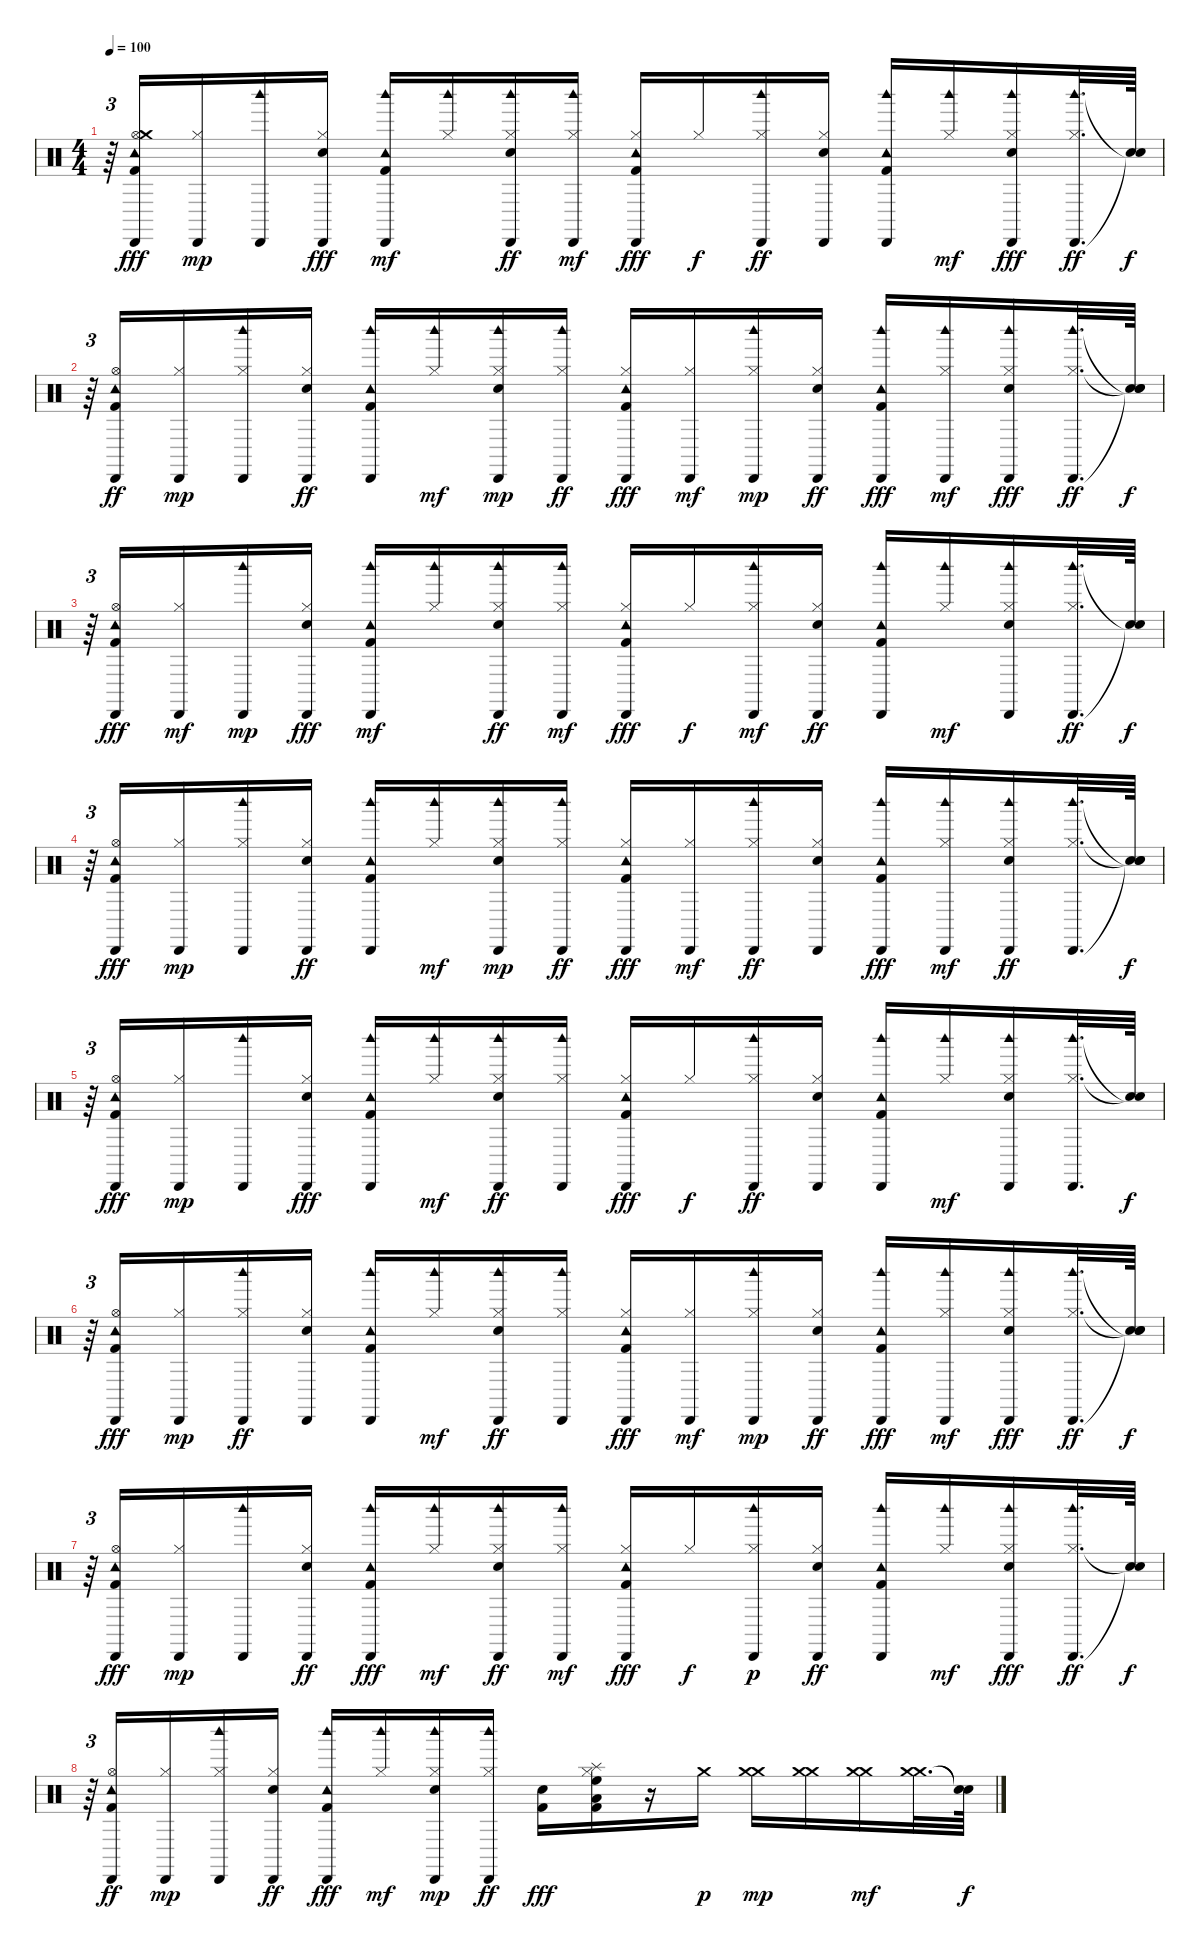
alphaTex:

\track "" {instrument percussion}
\staff {score}
\articulation defaults
\ts (4 4)
\tempo 100
\clef neutral
\ks c
r.64{tu (3 2) dy f} ("Tambourine (hit)" "Cabasa (hit)" "Hi-Hat (open)" "Kick (hit) 2" "Crash medium (hit)").16{dy fff} ("Cabasa (hit)" "Hi-Hat (closed)").16{dy mp} ("Woodblock high (hit)" "Cabasa (hit)").16 ("Hi-Hat (closed)" "Cabasa (hit)" "Electric Snare (hit)").16{dy fff} ("Tambourine (hit)" "Kick (hit) 2" "Woodblock high (hit)" "Cabasa (hit)").16{dy mf} ("Hi-Hat (closed)" "Woodblock high (hit)").16 ("Electric Snare (hit)" "Hi-Hat (closed)" "Cabasa (hit)" "Woodblock high (hit)").16{dy ff} ("Woodblock high (hit)" "Hi-Hat (closed)" "Cabasa (hit)").16{dy mf} ("Kick (hit) 2" "Tambourine (hit)" "Hi-Hat (closed)" "Cabasa (hit)").16{dy fff} "Hi-Hat (closed)".16{dy f} ("Hi-Hat (closed)" "Cabasa (hit)" "Woodblock high (hit)").16{dy ff} ("Hi-Hat (closed)" "Electric Snare (hit)" "Cabasa (hit)").16 ("Cabasa (hit)" "Tambourine (hit)" "Kick (hit) 2" "Woodblock high (hit)").16 ("Woodblock high (hit)" "Hi-Hat (closed)").16{dy mf} ("Woodblock high (hit)" "Hi-Hat (closed)" "Cabasa (hit)" "Electric Snare (hit)").16{dy fff} ("Cabasa (hit)" "Woodblock high (hit)" "Hi-Hat (closed)").32{d dy ff} ("Snare (hit)"{t} "Snare (hit)"{t}).64{dy f} |
r.64{tu (3 2)} ("Kick (hit) 2" "Cabasa (hit)" "Tambourine (hit)" "Hi-Hat (open)").16{dy ff} ("Hi-Hat (closed)" "Cabasa (hit)").16{dy mp} ("Hi-Hat (closed)" "Woodblock high (hit)" "Cabasa (hit)").16 ("Electric Snare (hit)" "Cabasa (hit)" "Hi-Hat (closed)").16{dy ff} ("Woodblock high (hit)" "Tambourine (hit)" "Kick (hit) 2" "Cabasa (hit)").16 ("Woodblock high (hit)" "Hi-Hat (closed)").16{dy mf} ("Hi-Hat (closed)" "Woodblock high (hit)" "Electric Snare (hit)" "Cabasa (hit)").16{dy mp} ("Hi-Hat (closed)" "Woodblock high (hit)" "Cabasa (hit)").16{dy ff} ("Hi-Hat (closed)" "Kick (hit) 2" "Tambourine (hit)" "Cabasa (hit)").16{dy fff} ("Cabasa (hit)" "Hi-Hat (closed)").16{dy mf} ("Woodblock high (hit)" "Hi-Hat (closed)" "Cabasa (hit)").16{dy mp} ("Cabasa (hit)" "Electric Snare (hit)" "Hi-Hat (closed)").16{dy ff} ("Cabasa (hit)" "Kick (hit) 2" "Tambourine (hit)" "Woodblock high (hit)").16{dy fff} ("Hi-Hat (closed)" "Woodblock high (hit)" "Cabasa (hit)").16{dy mf} ("Woodblock high (hit)" "Cabasa (hit)" "Hi-Hat (closed)" "Electric Snare (hit)").16{dy fff} ("Hi-Hat (closed)" "Woodblock high (hit)" "Cabasa (hit)").32{d dy ff} ("Snare (hit)"{t} "Snare (hit)"{t} "Snare (hit)"{t}).64{dy f} |
r.64{tu (3 2)} ("Cabasa (hit)" "Hi-Hat (open)" "Kick (hit) 2" "Tambourine (hit)").16{dy fff} ("Hi-Hat (closed)" "Cabasa (hit)").16{dy mf} ("Woodblock high (hit)" "Cabasa (hit)").16{dy mp} ("Cabasa (hit)" "Hi-Hat (closed)" "Electric Snare (hit)").16{dy fff} ("Kick (hit) 2" "Tambourine (hit)" "Woodblock high (hit)" "Cabasa (hit)").16{dy mf} ("Hi-Hat (closed)" "Woodblock high (hit)").16 ("Woodblock high (hit)" "Cabasa (hit)" "Electric Snare (hit)" "Hi-Hat (closed)").16{dy ff} ("Woodblock high (hit)" "Hi-Hat (closed)" "Cabasa (hit)").16{dy mf} ("Cabasa (hit)" "Tambourine (hit)" "Kick (hit) 2" "Hi-Hat (closed)").16{dy fff} "Hi-Hat (closed)".16{dy f} ("Woodblock high (hit)" "Hi-Hat (closed)" "Cabasa (hit)").16{dy mf} ("Electric Snare (hit)" "Hi-Hat (closed)" "Cabasa (hit)").16{dy ff} ("Woodblock high (hit)" "Cabasa (hit)" "Kick (hit) 2" "Tambourine (hit)").16 ("Hi-Hat (closed)" "Woodblock high (hit)").16{dy mf} ("Woodblock high (hit)" "Hi-Hat (closed)" "Electric Snare (hit)" "Cabasa (hit)").16 ("Woodblock high (hit)" "Cabasa (hit)" "Hi-Hat (closed)").32{d dy ff} ("Snare (hit)"{t} "Snare (hit)"{t}).64{dy f} |
r.64{tu (3 2)} ("Cabasa (hit)" "Kick (hit) 2" "Hi-Hat (open)" "Tambourine (hit)").16{dy fff} ("Cabasa (hit)" "Hi-Hat (closed)").16{dy mp} ("Hi-Hat (closed)" "Woodblock high (hit)" "Cabasa (hit)").16 ("Cabasa (hit)" "Electric Snare (hit)" "Hi-Hat (closed)").16{dy ff} ("Woodblock high (hit)" "Tambourine (hit)" "Kick (hit) 2" "Cabasa (hit)").16 ("Woodblock high (hit)" "Hi-Hat (closed)").16{dy mf} ("Electric Snare (hit)" "Hi-Hat (closed)" "Cabasa (hit)" "Woodblock high (hit)").16{dy mp} ("Cabasa (hit)" "Hi-Hat (closed)" "Woodblock high (hit)").16{dy ff} ("Cabasa (hit)" "Tambourine (hit)" "Kick (hit) 2" "Hi-Hat (closed)").16{dy fff} ("Hi-Hat (closed)" "Cabasa (hit)").16{dy mf} ("Hi-Hat (closed)" "Cabasa (hit)" "Woodblock high (hit)").16{dy ff} ("Electric Snare (hit)" "Cabasa (hit)" "Hi-Hat (closed)").16 ("Tambourine (hit)" "Woodblock high (hit)" "Cabasa (hit)" "Kick (hit) 2").16{dy fff} ("Hi-Hat (closed)" "Woodblock high (hit)" "Cabasa (hit)").16{dy mf} ("Electric Snare (hit)" "Hi-Hat (closed)" "Cabasa (hit)" "Woodblock high (hit)").16{dy ff} ("Hi-Hat (closed)" "Cabasa (hit)" "Woodblock high (hit)").32{d} ("Snare (hit)"{t} "Snare (hit)"{t} "Snare (hit)"{t}).64{dy f} |
r.64{tu (3 2)} ("Cabasa (hit)" "Hi-Hat (open)" "Kick (hit) 2" "Tambourine (hit)").16{dy fff} ("Cabasa (hit)" "Hi-Hat (closed)").16{dy mp} ("Cabasa (hit)" "Woodblock high (hit)").16 ("Hi-Hat (closed)" "Cabasa (hit)" "Electric Snare (hit)").16{dy fff} ("Kick (hit) 2" "Woodblock high (hit)" "Cabasa (hit)" "Tambourine (hit)").16 ("Woodblock high (hit)" "Hi-Hat (closed)").16{dy mf} ("Electric Snare (hit)" "Hi-Hat (closed)" "Cabasa (hit)" "Woodblock high (hit)").16{dy ff} ("Hi-Hat (closed)" "Cabasa (hit)" "Woodblock high (hit)").16 ("Hi-Hat (closed)" "Tambourine (hit)" "Cabasa (hit)" "Kick (hit) 2").16{dy fff} "Hi-Hat (closed)".16{dy f} ("Hi-Hat (closed)" "Cabasa (hit)" "Woodblock high (hit)").16{dy ff} ("Electric Snare (hit)" "Hi-Hat (closed)" "Cabasa (hit)").16 ("Cabasa (hit)" "Woodblock high (hit)" "Kick (hit) 2" "Tambourine (hit)").16 ("Woodblock high (hit)" "Hi-Hat (closed)").16{dy mf} ("Woodblock high (hit)" "Hi-Hat (closed)" "Electric Snare (hit)" "Cabasa (hit)").16 ("Woodblock high (hit)" "Hi-Hat (closed)" "Cabasa (hit)").32{d} ("Snare (hit)"{t} "Snare (hit)"{t}).64{dy f} |
r.64{tu (3 2)} ("Hi-Hat (open)" "Kick (hit) 2" "Tambourine (hit)" "Cabasa (hit)").16{dy fff} ("Hi-Hat (closed)" "Cabasa (hit)").16{dy mp} ("Cabasa (hit)" "Hi-Hat (closed)" "Woodblock high (hit)").16{dy ff} ("Cabasa (hit)" "Electric Snare (hit)" "Hi-Hat (closed)").16 ("Tambourine (hit)" "Kick (hit) 2" "Woodblock high (hit)" "Cabasa (hit)").16 ("Hi-Hat (closed)" "Woodblock high (hit)").16{dy mf} ("Cabasa (hit)" "Electric Snare (hit)" "Hi-Hat (closed)" "Woodblock high (hit)").16{dy ff} ("Woodblock high (hit)" "Cabasa (hit)" "Hi-Hat (closed)").16 ("Cabasa (hit)" "Kick (hit) 2" "Tambourine (hit)" "Hi-Hat (closed)").16{dy fff} ("Hi-Hat (closed)" "Cabasa (hit)").16{dy mf} ("Hi-Hat (closed)" "Woodblock high (hit)" "Cabasa (hit)").16{dy mp} ("Electric Snare (hit)" "Hi-Hat (closed)" "Cabasa (hit)").16{dy ff} ("Tambourine (hit)" "Kick (hit) 2" "Cabasa (hit)" "Woodblock high (hit)").16{dy fff} ("Cabasa (hit)" "Hi-Hat (closed)" "Woodblock high (hit)").16{dy mf} ("Woodblock high (hit)" "Hi-Hat (closed)" "Cabasa (hit)" "Electric Snare (hit)").16{dy fff} ("Woodblock high (hit)" "Hi-Hat (closed)" "Cabasa (hit)").32{d dy ff} ("Snare (hit)"{t} "Snare (hit)"{t} "Snare (hit)"{t}).64{dy f} |
r.64{tu (3 2)} ("Tambourine (hit)" "Hi-Hat (open)" "Cabasa (hit)" "Kick (hit) 2").16{dy fff} ("Cabasa (hit)" "Hi-Hat (closed)").16{dy mp} ("Cabasa (hit)" "Woodblock high (hit)").16 ("Electric Snare (hit)" "Hi-Hat (closed)" "Cabasa (hit)").16{dy ff} ("Cabasa (hit)" "Kick (hit) 2" "Woodblock high (hit)" "Tambourine (hit)").16{dy fff} ("Woodblock high (hit)" "Hi-Hat (closed)").16{dy mf} ("Woodblock high (hit)" "Cabasa (hit)" "Electric Snare (hit)" "Hi-Hat (closed)").16{dy ff} ("Woodblock high (hit)" "Cabasa (hit)" "Hi-Hat (closed)").16{dy mf} ("Tambourine (hit)" "Cabasa (hit)" "Hi-Hat (closed)" "Kick (hit) 2").16{dy fff} "Hi-Hat (closed)".16{dy f} ("Cabasa (hit)" "Woodblock high (hit)" "Hi-Hat (closed)").16{dy p} ("Hi-Hat (closed)" "Cabasa (hit)" "Electric Snare (hit)").16{dy ff} ("Kick (hit) 2" "Woodblock high (hit)" "Tambourine (hit)" "Cabasa (hit)").16 ("Hi-Hat (closed)" "Woodblock high (hit)").16{dy mf} ("Hi-Hat (closed)" "Cabasa (hit)" "Electric Snare (hit)" "Woodblock high (hit)").16{dy fff} ("Cabasa (hit)" "Hi-Hat (closed)" "Woodblock high (hit)").32{d dy ff} ("Snare (hit)"{t} "Snare (hit)"{t}).64{dy f} |
r.64{tu (3 2)} ("Cabasa (hit)" "Tambourine (hit)" "Kick (hit) 2" "Hi-Hat (open)").16{dy ff} ("Hi-Hat (closed)" "Cabasa (hit)").16{dy mp} ("Hi-Hat (closed)" "Woodblock high (hit)" "Cabasa (hit)").16 ("Cabasa (hit)" "Electric Snare (hit)" "Hi-Hat (closed)").16{dy ff} ("Cabasa (hit)" "Kick (hit) 2" "Woodblock high (hit)" "Tambourine (hit)").16{dy fff} ("Woodblock high (hit)" "Hi-Hat (closed)").16{dy mf} ("Woodblock high (hit)" "Electric Snare (hit)" "Hi-Hat (closed)" "Cabasa (hit)").16{dy mp} ("Cabasa (hit)" "Hi-Hat (closed)" "Woodblock high (hit)").16{dy ff} ("Electric Snare (hit)" "Kick (hit) 2").16{dy fff} ("Splash (hit)" "Hi-Hat (closed)" "Kick (hit) 2" "High Floor Tom (hit)" "Low Floor Tom (hit)").16 r.16 "Crash medium (hit)".16{dy p} ("Crash medium (hit)" "Crash medium (hit)").16{dy mp} ("Crash medium (hit)" "Crash medium (hit)").16 ("Crash medium (hit)" "Crash medium (hit)").16{dy mf} ("Crash medium (hit)" "Crash medium (hit)").32{d} ("Snare (hit)"{t} "Snare (hit)"{t}).64{dy f}
